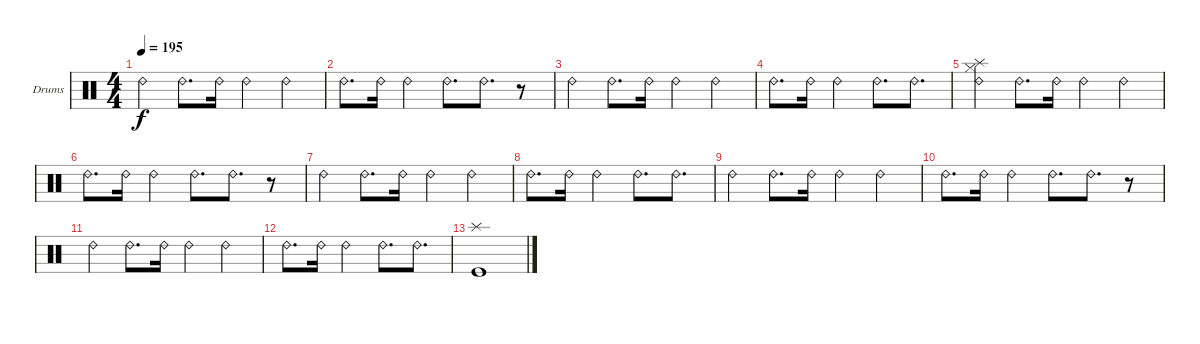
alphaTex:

\defaultSystemsLayout 4
\bracketExtendMode groupsimilarinstruments
\firstSystemTrackNameOrientation horizontal
\otherSystemsTrackNameOrientation horizontal
\track ("Drumkit" "Drums") {instrument percussion}
\staff {score}
\articulation defaults
\ts (4 4)
\tempo 195
\clef neutral
\ks c "Ride (bell) 2".4{dy f} "Ride (bell) 2".8{d} "Ride (bell) 2".16 "Ride (bell) 2".4 "Ride (bell) 2".4
|
"Ride (bell) 2".8{d} "Ride (bell) 2".16 "Ride (bell) 2".4 "Ride (bell) 2".8{d} "Ride (bell) 2".8{d} r.8 |
"Ride (bell) 2".4 "Ride (bell) 2".8{d} "Ride (bell) 2".16 "Ride (bell) 2".4 "Ride (bell) 2".4 |
"Ride (bell) 2".8{d} "Ride (bell) 2".16 "Ride (bell) 2".4 "Ride (bell) 2".8{d} "Ride (bell) 2".8{d} |
("Ride (bell) 2" "Hi-Hat (closed)" "Splash (hit)").4 "Ride (bell) 2".8{d} "Ride (bell) 2".16 "Ride (bell) 2".4 "Ride (bell) 2".4 |
"Ride (bell) 2".8{d} "Ride (bell) 2".16 "Ride (bell) 2".4 "Ride (bell) 2".8{d} "Ride (bell) 2".8{d} r.8 |
"Ride (bell) 2".4 "Ride (bell) 2".8{d} "Ride (bell) 2".16 "Ride (bell) 2".4 "Ride (bell) 2".4 |
"Ride (bell) 2".8{d} "Ride (bell) 2".16 "Ride (bell) 2".4 "Ride (bell) 2".8{d} "Ride (bell) 2".8{d} |
"Ride (bell) 2".4 "Ride (bell) 2".8{d} "Ride (bell) 2".16 "Ride (bell) 2".4 "Ride (bell) 2".4 |
"Ride (bell) 2".8{d} "Ride (bell) 2".16 "Ride (bell) 2".4 "Ride (bell) 2".8{d} "Ride (bell) 2".8{d} r.8 |
"Ride (bell) 2".4 "Ride (bell) 2".8{d} "Ride (bell) 2".16 "Ride (bell) 2".4 "Ride (bell) 2".4 |
"Ride (bell) 2".8{d} "Ride (bell) 2".16 "Ride (bell) 2".4 "Ride (bell) 2".8{d} "Ride (bell) 2".8{d} |
("Splash (hit)" "Kick (hit)").1
